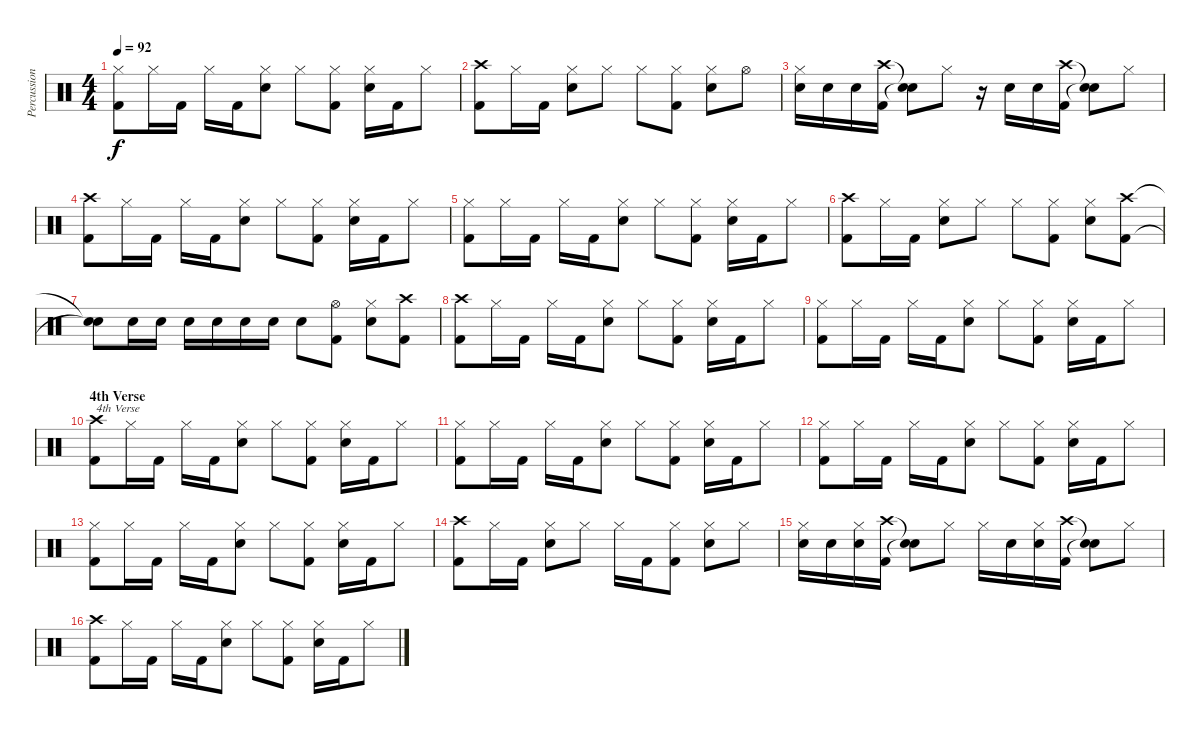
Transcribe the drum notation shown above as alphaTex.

\track ("Percussions" "Percussion") {instrument percussion}
\staff {score}
\articulation defaults
\ts (4 4)
\tempo 92
\clef neutral
\ks c
("Hi-Hat (closed)" "Kick (hit) 2").8{dy f} "Hi-Hat (closed)".16 "Kick (hit) 2".16 "Hi-Hat (closed)".16 "Kick (hit) 2".16 ("Hi-Hat (closed)" "Snare (hit) 2").8 "Hi-Hat (closed)".8 ("Hi-Hat (closed)" "Kick (hit) 2").8 ("Hi-Hat (closed)" "Snare (hit) 2").16 "Kick (hit) 2".16 "Hi-Hat (closed)".8 |
("Crash high (hit)" "Kick (hit) 2").8 "Hi-Hat (closed)".16 "Kick (hit) 2".16 ("Hi-Hat (closed)" "Snare (hit) 2").8 "Hi-Hat (closed)".8 "Hi-Hat (closed)".8 ("Hi-Hat (closed)" "Kick (hit) 2").8 ("Hi-Hat (closed)" "Snare (hit) 2").8 "Hi-Hat (open)".8 |
("Hi-Hat (closed)" "Snare (hit) 2").16 "Snare (hit) 2".16 "Snare (hit) 2".16 ("Crash high (hit)" "Kick (hit) 2").16 ("Snare (hit)"{t} "Snare (hit)"{t}).8 "Hi-Hat (closed)".8 r.16 "Snare (hit) 2".16 "Snare (hit) 2".16 ("Crash high (hit)" "Kick (hit) 2").16 ("Snare (hit)"{t} "Snare (hit)"{t}).8 "Hi-Hat (closed)".8 |
("Crash high (hit)" "Kick (hit) 2").8 "Hi-Hat (closed)".16 "Kick (hit) 2".16 "Hi-Hat (closed)".16 "Kick (hit) 2".16 ("Hi-Hat (closed)" "Snare (hit) 2").8 "Hi-Hat (closed)".8 ("Hi-Hat (closed)" "Kick (hit) 2").8 ("Hi-Hat (closed)" "Snare (hit) 2").16 "Kick (hit) 2".16 "Hi-Hat (closed)".8 |
("Hi-Hat (closed)" "Kick (hit) 2").8 "Hi-Hat (closed)".16 "Kick (hit) 2".16 "Hi-Hat (closed)".16 "Kick (hit) 2".16 ("Hi-Hat (closed)" "Snare (hit) 2").8 "Hi-Hat (closed)".8 ("Hi-Hat (closed)" "Kick (hit) 2").8 ("Hi-Hat (closed)" "Snare (hit) 2").16 "Kick (hit) 2".16 "Hi-Hat (closed)".8 |
("Crash high (hit)" "Kick (hit) 2").8 "Hi-Hat (closed)".16 "Kick (hit) 2".16 ("Hi-Hat (closed)" "Snare (hit) 2").8 "Hi-Hat (closed)".8 "Hi-Hat (closed)".8 ("Hi-Hat (closed)" "Kick (hit) 2").8 ("Hi-Hat (closed)" "Snare (hit) 2").8 ("Crash high (hit)" "Kick (hit) 2").8 |
("Snare (hit)"{t} "Snare (hit)"{t}).8 "Snare (hit) 2".16 "Snare (hit) 2".16 "Snare (hit) 2".16 "Snare (hit) 2".16 "Snare (hit) 2".16 "Snare (hit) 2".16 "Snare (hit) 2".8 ("Hi-Hat (open)" "Kick (hit) 2").8 ("Hi-Hat (closed)" "Snare (hit) 2").8 ("Crash high (hit)" "Kick (hit) 2").8 |
("Crash high (hit)" "Kick (hit) 2").8 "Hi-Hat (closed)".16 "Kick (hit) 2".16 "Hi-Hat (closed)".16 "Kick (hit) 2".16 ("Hi-Hat (closed)" "Snare (hit) 2").8 "Hi-Hat (closed)".8 ("Hi-Hat (closed)" "Kick (hit) 2").8 ("Hi-Hat (closed)" "Snare (hit) 2").16 "Kick (hit) 2".16 "Hi-Hat (closed)".8 |
("Hi-Hat (closed)" "Kick (hit) 2").8 "Hi-Hat (closed)".16 "Kick (hit) 2".16 "Hi-Hat (closed)".16 "Kick (hit) 2".16 ("Hi-Hat (closed)" "Snare (hit) 2").8 "Hi-Hat (closed)".8 ("Hi-Hat (closed)" "Kick (hit) 2").8 ("Hi-Hat (closed)" "Snare (hit) 2").16 "Kick (hit) 2".16 "Hi-Hat (closed)".8 |
\section ("" "4th Verse")
("Crash high (hit)" "Kick (hit) 2").8{txt "4th Verse"} "Hi-Hat (closed)".16 "Kick (hit) 2".16 "Hi-Hat (closed)".16 "Kick (hit) 2".16 ("Hi-Hat (closed)" "Snare (hit) 2").8 "Hi-Hat (closed)".8 ("Hi-Hat (closed)" "Kick (hit) 2").8 ("Hi-Hat (closed)" "Snare (hit) 2").16 "Kick (hit) 2".16 "Hi-Hat (closed)".8 |
("Hi-Hat (closed)" "Kick (hit) 2").8 "Hi-Hat (closed)".16 "Kick (hit) 2".16 "Hi-Hat (closed)".16 "Kick (hit) 2".16 ("Hi-Hat (closed)" "Snare (hit) 2").8 "Hi-Hat (closed)".8 ("Hi-Hat (closed)" "Kick (hit) 2").8 ("Hi-Hat (closed)" "Snare (hit) 2").16 "Kick (hit) 2".16 "Hi-Hat (closed)".8 |
("Hi-Hat (closed)" "Kick (hit) 2").8 "Hi-Hat (closed)".16 "Kick (hit) 2".16 "Hi-Hat (closed)".16 "Kick (hit) 2".16 ("Hi-Hat (closed)" "Snare (hit) 2").8 "Hi-Hat (closed)".8 ("Hi-Hat (closed)" "Kick (hit) 2").8 ("Hi-Hat (closed)" "Snare (hit) 2").16 "Kick (hit) 2".16 "Hi-Hat (closed)".8 |
("Hi-Hat (closed)" "Kick (hit) 2").8 "Hi-Hat (closed)".16 "Kick (hit) 2".16 "Hi-Hat (closed)".16 "Kick (hit) 2".16 ("Hi-Hat (closed)" "Snare (hit) 2").8 "Hi-Hat (closed)".8 ("Hi-Hat (closed)" "Kick (hit) 2").8 ("Hi-Hat (closed)" "Snare (hit) 2").16 "Kick (hit) 2".16 "Hi-Hat (closed)".8 |
("Crash high (hit)" "Kick (hit) 2").8 "Hi-Hat (closed)".16 "Kick (hit) 2".16 ("Hi-Hat (closed)" "Snare (hit) 2").8 "Hi-Hat (closed)".8 "Hi-Hat (closed)".16 "Kick (hit) 2".16 ("Hi-Hat (closed)" "Kick (hit) 2").8 ("Hi-Hat (closed)" "Snare (hit) 2").8 "Hi-Hat (closed)".8 |
("Hi-Hat (closed)" "Snare (hit) 2").16 "Snare (hit) 2".16 ("Hi-Hat (closed)" "Snare (hit) 2").16 ("Crash high (hit)" "Kick (hit) 2").16 ("Snare (hit)"{t} "Snare (hit)"{t}).8 "Hi-Hat (closed)".8 "Hi-Hat (closed)".16 "Snare (hit) 2".16 ("Hi-Hat (closed)" "Snare (hit) 2").16 ("Crash high (hit)" "Kick (hit) 2").16 ("Snare (hit)"{t} "Snare (hit)"{t}).8 "Hi-Hat (closed)".8 |
("Crash high (hit)" "Kick (hit) 2").8 "Hi-Hat (closed)".16 "Kick (hit) 2".16 "Hi-Hat (closed)".16 "Kick (hit) 2".16 ("Hi-Hat (closed)" "Snare (hit) 2").8 "Hi-Hat (closed)".8 ("Hi-Hat (closed)" "Kick (hit) 2").8 ("Hi-Hat (closed)" "Snare (hit) 2").16 "Kick (hit) 2".16 "Hi-Hat (closed)".8
